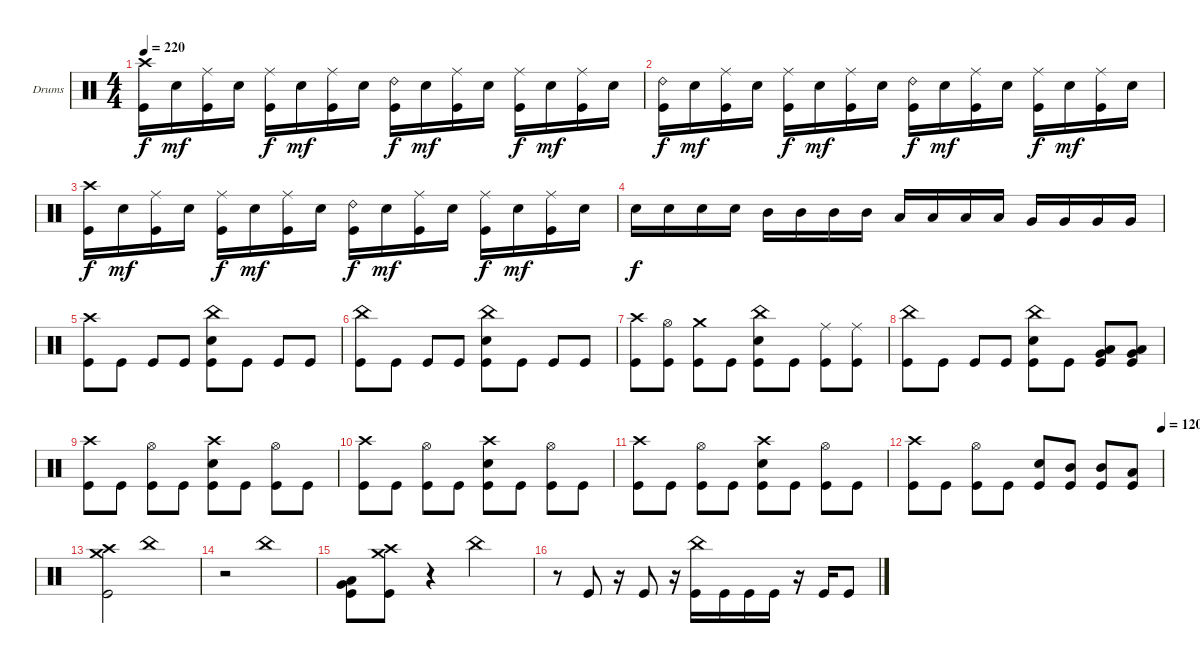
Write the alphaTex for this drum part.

\defaultSystemsLayout 4
\bracketExtendMode groupsimilarinstruments
\firstSystemTrackNameOrientation horizontal
\otherSystemsTrackNameOrientation horizontal
\track ("Drumkit" "Drums") {instrument percussion}
\staff {score}
\articulation defaults
\ts (4 4)
\tempo 220
\clef neutral
\scale
0.333333
\ks c
("Crash high (hit)" "Kick (hit)").16{dy f} "Snare (hit) 2".16{dy mf} ("Ride (middle)" "Kick (hit)").16 "Snare (hit) 2".16 ("Ride (middle)" "Kick (hit)").16{dy f} "Snare (hit) 2".16{dy mf} ("Ride (middle)" "Kick (hit)").16 "Snare (hit) 2".16 ("Ride (bell) 2" "Kick (hit)").16{dy f} "Snare (hit) 2".16{dy mf} ("Ride (middle)" "Kick (hit)").16 "Snare (hit) 2".16 ("Ride (middle)" "Kick (hit)").16{dy f} "Snare (hit) 2".16{dy mf} ("Ride (middle)" "Kick (hit)").16 "Snare (hit) 2".16 |
\scale
0.333333 ("Ride (bell) 2" "Kick (hit)").16{dy f} "Snare (hit) 2".16{dy mf} ("Ride (middle)" "Kick (hit)").16 "Snare (hit) 2".16 ("Ride (middle)" "Kick (hit)").16{dy f} "Snare (hit) 2".16{dy mf} ("Ride (middle)" "Kick (hit)").16 "Snare (hit) 2".16 ("Ride (bell) 2" "Kick (hit)").16{dy f} "Snare (hit) 2".16{dy mf} ("Ride (middle)" "Kick (hit)").16 "Snare (hit) 2".16 ("Ride (middle)" "Kick (hit)").16{dy f} "Snare (hit) 2".16{dy mf} ("Ride (middle)" "Kick (hit)").16 "Snare (hit) 2".16 |
\scale
0.333333 ("Crash high (hit)" "Kick (hit)").16{dy f} "Snare (hit) 2".16{dy mf} ("Ride (middle)" "Kick (hit)").16 "Snare (hit) 2".16 ("Ride (middle)" "Kick (hit)").16{dy f} "Snare (hit) 2".16{dy mf} ("Ride (middle)" "Kick (hit)").16 "Snare (hit) 2".16 ("Ride (bell) 2" "Kick (hit)").16{dy f} "Snare (hit) 2".16{dy mf} ("Ride (middle)" "Kick (hit)").16 "Snare (hit) 2".16 ("Ride (middle)" "Kick (hit)").16{dy f} "Snare (hit) 2".16{dy mf} ("Ride (middle)" "Kick (hit)").16 "Snare (hit) 2".16 |
\scale
0.333333 "Snare (hit) 2".16{dy f} "Snare (hit) 2".16 "Snare (hit) 2".16 "Snare (hit) 2".16 "Mid Tom (hit)".16 "Mid Tom (hit)".16 "Mid Tom (hit)".16 "Mid Tom (hit)".16 "Low Tom (hit)".16 "Low Tom (hit)".16 "Low Tom (hit)".16 "Low Tom (hit)".16 "Very Low Tom (hit)".16 "Very Low Tom (hit)".16 "Very Low Tom (hit)".16 "Very Low Tom (hit)".16 |
\scale
0.333333 ("Crash high (hit)" "Kick (hit)").8 "Kick (hit)".8 "Kick (hit)".8 "Kick (hit)".8 ("China (hit)" "Snare (hit) 2" "Kick (hit)").8 "Kick (hit)".8 "Kick (hit)".8 "Kick (hit)".8 |
\scale
0.333333 ("China (hit)" "Kick (hit)").8 "Kick (hit)".8 "Kick (hit)".8 "Kick (hit)".8 ("China (hit)" "Snare (hit) 2" "Kick (hit)").8 "Kick (hit)".8 "Kick (hit)".8 "Kick (hit)".8 |
\scale
0.333333 ("Crash high (hit)" "Kick (hit)").8 ("Hi-Hat (open)" "Kick (hit)").8 ("Crash medium (hit)" "Kick (hit)").8 "Kick (hit)".8 ("China (hit)" "Snare (hit) 2" "Kick (hit)").8 "Kick (hit)".8 ("Ride (middle)" "Kick (hit)").8 ("Ride (middle)" "Kick (hit)").8 |
\scale
0.333333 ("China (hit)" "Kick (hit)").8 "Kick (hit)".8 "Kick (hit)".8 "Kick (hit)".8 ("China (hit)" "Snare (hit) 2" "Kick (hit)").8 "Kick (hit)".8 ("Very Low Tom (hit)" "Low Tom (hit)" "Kick (hit)").8 ("Very Low Tom (hit)" "Low Tom (hit)" "Kick (hit)").8 |
\scale
0.333333 ("Crash high (hit)" "Kick (hit)").8 "Kick (hit)".8 ("Hi-Hat (open)" "Kick (hit)").8 "Kick (hit)".8 ("Crash high (hit)" "Snare (hit) 2" "Kick (hit)").8 "Kick (hit)".8 ("Hi-Hat (open)" "Kick (hit)").8 "Kick (hit)".8 |
\scale
0.333333 ("Crash high (hit)" "Kick (hit)").8 "Kick (hit)".8 ("Hi-Hat (open)" "Kick (hit)").8 "Kick (hit)".8 ("Crash high (hit)" "Snare (hit) 2" "Kick (hit)").8 "Kick (hit)".8 ("Hi-Hat (open)" "Kick (hit)").8 "Kick (hit)".8 |
\scale
0.333333 ("Crash high (hit)" "Kick (hit)").8 "Kick (hit)".8 ("Hi-Hat (open)" "Kick (hit)").8 "Kick (hit)".8 ("Crash high (hit)" "Snare (hit) 2" "Kick (hit)").8 "Kick (hit)".8 ("Hi-Hat (open)" "Kick (hit)").8 "Kick (hit)".8 |
\tempo (120 1)
\scale
0.333333 ("Crash high (hit)" "Kick (hit)").8 "Kick (hit)".8 ("Hi-Hat (open)" "Kick (hit)").8 "Kick (hit)".8 ("Snare (hit) 2" "Kick (hit)").8 ("Mid Tom (hit)" "Kick (hit)").8 ("Mid Tom (hit)" "Kick (hit)").8 ("Low Tom (hit)" "Kick (hit)").8 |
\scale
0.333333 ("Crash medium (hit)" "Crash high (hit)" "Kick (hit)").2 "China (hit)".1 |
\scale
0.333333 r.2 "China (hit)".1 |
\scale
0.333333 ("Low Tom (hit)" "Very Low Tom (hit)" "Kick (hit)").8 ("Crash medium (hit)" "Crash high (hit)" "Kick (hit)").8 r.4 "China (hit)".2 |
\scale
0.333333 r.8 "Kick (hit)".8 r.16 "Kick (hit)".8 r.16 ("China (hit)" "Kick (hit)").16 "Kick (hit)".16 "Kick (hit)".16 "Kick (hit)".16 r.16 "Kick (hit)".16 "Kick (hit)".8
